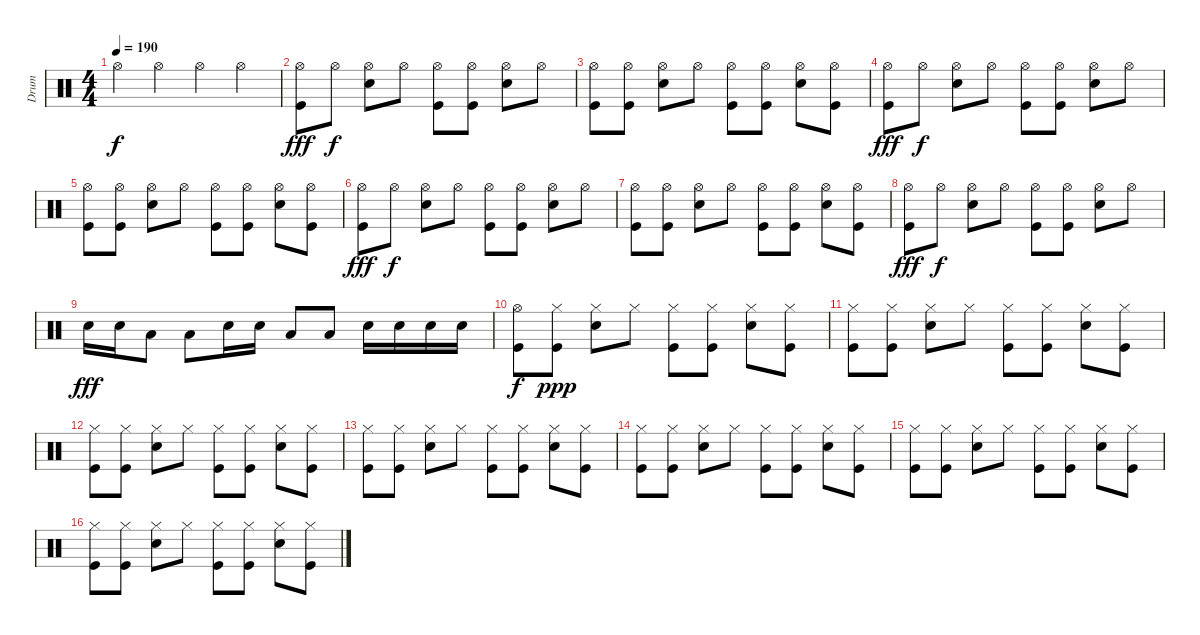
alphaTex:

\track ("Drum" "Drum") {instrument percussion}
\staff {score}
\articulation defaults
\ts (4 4)
\tempo 190
\clef neutral
\ks c "Hi-Hat (open)".4{dy f} "Hi-Hat (open)".4 "Hi-Hat (open)".4 "Hi-Hat (open)".4
|
("Hi-Hat (open)" "Kick (hit)").8{dy fff} "Hi-Hat (open)".8{dy f} ("Hi-Hat (open)" "Snare (hit) 2").8 "Hi-Hat (open)".8 ("Hi-Hat (open)" "Kick (hit)").8 ("Hi-Hat (open)" "Kick (hit)").8 ("Hi-Hat (open)" "Snare (hit) 2").8 "Hi-Hat (open)".8 |
("Hi-Hat (open)" "Kick (hit)").8 ("Hi-Hat (open)" "Kick (hit)").8 ("Hi-Hat (open)" "Snare (hit) 2").8 "Hi-Hat (open)".8 ("Hi-Hat (open)" "Kick (hit)").8 ("Hi-Hat (open)" "Kick (hit)").8 ("Hi-Hat (open)" "Snare (hit) 2").8 ("Hi-Hat (open)" "Kick (hit)").8 |
("Hi-Hat (open)" "Kick (hit)").8{dy fff} "Hi-Hat (open)".8{dy f} ("Hi-Hat (open)" "Snare (hit) 2").8 "Hi-Hat (open)".8 ("Hi-Hat (open)" "Kick (hit)").8 ("Hi-Hat (open)" "Kick (hit)").8 ("Hi-Hat (open)" "Snare (hit) 2").8 "Hi-Hat (open)".8 |
("Hi-Hat (open)" "Kick (hit)").8 ("Hi-Hat (open)" "Kick (hit)").8 ("Hi-Hat (open)" "Snare (hit) 2").8 "Hi-Hat (open)".8 ("Hi-Hat (open)" "Kick (hit)").8 ("Hi-Hat (open)" "Kick (hit)").8 ("Hi-Hat (open)" "Snare (hit) 2").8 ("Hi-Hat (open)" "Kick (hit)").8 |
("Hi-Hat (open)" "Kick (hit)").8{dy fff} "Hi-Hat (open)".8{dy f} ("Hi-Hat (open)" "Snare (hit) 2").8 "Hi-Hat (open)".8 ("Hi-Hat (open)" "Kick (hit)").8 ("Hi-Hat (open)" "Kick (hit)").8 ("Hi-Hat (open)" "Snare (hit) 2").8 "Hi-Hat (open)".8 |
("Hi-Hat (open)" "Kick (hit)").8 ("Hi-Hat (open)" "Kick (hit)").8 ("Hi-Hat (open)" "Snare (hit) 2").8 "Hi-Hat (open)".8 ("Hi-Hat (open)" "Kick (hit)").8 ("Hi-Hat (open)" "Kick (hit)").8 ("Hi-Hat (open)" "Snare (hit) 2").8 ("Hi-Hat (open)" "Kick (hit)").8 |
("Hi-Hat (open)" "Kick (hit)").8{dy fff} "Hi-Hat (open)".8{dy f} ("Hi-Hat (open)" "Snare (hit) 2").8 "Hi-Hat (open)".8 ("Hi-Hat (open)" "Kick (hit)").8 ("Hi-Hat (open)" "Kick (hit)").8 ("Hi-Hat (open)" "Snare (hit) 2").8 "Hi-Hat (open)".8 |
"Snare (hit) 2".16{dy fff} "Snare (hit) 2".16 "Low Tom (hit)".8 "Low Tom (hit)".8 "Snare (hit) 2".16 "Snare (hit) 2".16 "Low Tom (hit)".8 "Low Tom (hit)".8 "Snare (hit) 2".16 "Snare (hit) 2".16 "Snare (hit) 2".16 "Snare (hit) 2".16 |
("Hi-Hat (open)" "Kick (hit)").8{dy f} ("Hi-Hat (closed)" "Kick (hit)").8{dy ppp} ("Hi-Hat (closed)" "Snare (hit) 2").8 "Hi-Hat (closed)".8 ("Hi-Hat (closed)" "Kick (hit)").8 ("Hi-Hat (closed)" "Kick (hit)").8 ("Hi-Hat (closed)" "Snare (hit) 2").8 ("Hi-Hat (closed)" "Kick (hit)").8 |
("Hi-Hat (closed)" "Kick (hit)").8 ("Hi-Hat (closed)" "Kick (hit)").8 ("Hi-Hat (closed)" "Snare (hit) 2").8 "Hi-Hat (closed)".8 ("Hi-Hat (closed)" "Kick (hit)").8 ("Hi-Hat (closed)" "Kick (hit)").8 ("Hi-Hat (closed)" "Snare (hit) 2").8 ("Hi-Hat (closed)" "Kick (hit)").8 |
("Hi-Hat (closed)" "Kick (hit)").8 ("Hi-Hat (closed)" "Kick (hit)").8 ("Hi-Hat (closed)" "Snare (hit) 2").8 "Hi-Hat (closed)".8 ("Hi-Hat (closed)" "Kick (hit)").8 ("Hi-Hat (closed)" "Kick (hit)").8 ("Hi-Hat (closed)" "Snare (hit) 2").8 ("Hi-Hat (closed)" "Kick (hit)").8 |
("Hi-Hat (closed)" "Kick (hit)").8 ("Hi-Hat (closed)" "Kick (hit)").8 ("Hi-Hat (closed)" "Snare (hit) 2").8 "Hi-Hat (closed)".8 ("Hi-Hat (closed)" "Kick (hit)").8 ("Hi-Hat (closed)" "Kick (hit)").8 ("Hi-Hat (closed)" "Snare (hit) 2").8 ("Hi-Hat (closed)" "Kick (hit)").8 |
("Hi-Hat (closed)" "Kick (hit)").8 ("Hi-Hat (closed)" "Kick (hit)").8 ("Hi-Hat (closed)" "Snare (hit) 2").8 "Hi-Hat (closed)".8 ("Hi-Hat (closed)" "Kick (hit)").8 ("Hi-Hat (closed)" "Kick (hit)").8 ("Hi-Hat (closed)" "Snare (hit) 2").8 ("Hi-Hat (closed)" "Kick (hit)").8 |
("Hi-Hat (closed)" "Kick (hit)").8 ("Hi-Hat (closed)" "Kick (hit)").8 ("Hi-Hat (closed)" "Snare (hit) 2").8 "Hi-Hat (closed)".8 ("Hi-Hat (closed)" "Kick (hit)").8 ("Hi-Hat (closed)" "Kick (hit)").8 ("Hi-Hat (closed)" "Snare (hit) 2").8 ("Hi-Hat (closed)" "Kick (hit)").8 |
("Hi-Hat (closed)" "Kick (hit)").8 ("Hi-Hat (closed)" "Kick (hit)").8 ("Hi-Hat (closed)" "Snare (hit) 2").8 "Hi-Hat (closed)".8 ("Hi-Hat (closed)" "Kick (hit)").8 ("Hi-Hat (closed)" "Kick (hit)").8 ("Hi-Hat (closed)" "Snare (hit) 2").8 ("Hi-Hat (closed)" "Kick (hit)").8
